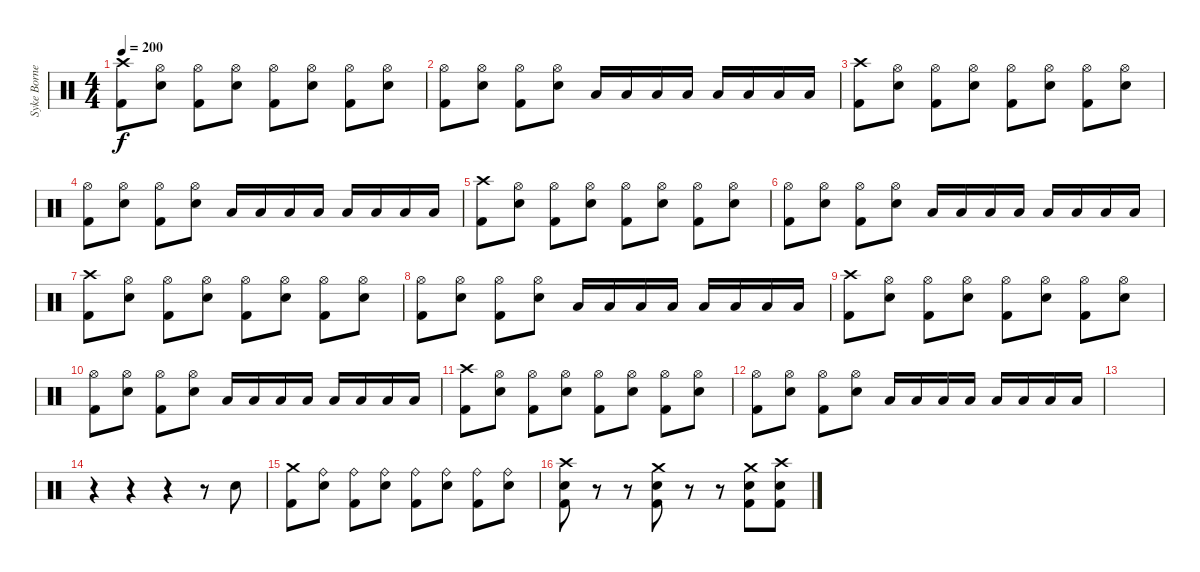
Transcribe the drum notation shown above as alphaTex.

\track ("Syke Bornetto (Drums)" "Syke Borne") {instrument percussion}
\staff {score}
\articulation defaults
\ts (4 4)
\tempo 200
\clef neutral
\ks c
("Crash high (hit)" "Kick (hit) 2").8{dy f} ("Hi-Hat (open)" "Electric Snare (hit)").8 ("Hi-Hat (open)" "Kick (hit) 2").8 ("Hi-Hat (open)" "Electric Snare (hit)").8 ("Hi-Hat (open)" "Kick (hit) 2").8 ("Hi-Hat (open)" "Electric Snare (hit)").8 ("Hi-Hat (open)" "Kick (hit) 2").8 ("Hi-Hat (open)" "Electric Snare (hit)").8 |
("Hi-Hat (open)" "Kick (hit) 2").8 ("Hi-Hat (open)" "Electric Snare (hit)").8 ("Hi-Hat (open)" "Kick (hit) 2").8 ("Hi-Hat (open)" "Electric Snare (hit)").8 "Low Floor Tom (hit)".16 "Low Floor Tom (hit)".16 "Low Floor Tom (hit)".16 "Low Floor Tom (hit)".16 "Low Tom (hit)".16 "Low Tom (hit)".16 "Low Tom (hit)".16 "Low Tom (hit)".16 |
("Crash high (hit)" "Kick (hit) 2").8 ("Hi-Hat (open)" "Electric Snare (hit)").8 ("Hi-Hat (open)" "Kick (hit) 2").8 ("Hi-Hat (open)" "Electric Snare (hit)").8 ("Hi-Hat (open)" "Kick (hit) 2").8 ("Hi-Hat (open)" "Electric Snare (hit)").8 ("Hi-Hat (open)" "Kick (hit) 2").8 ("Hi-Hat (open)" "Electric Snare (hit)").8 |
("Hi-Hat (open)" "Kick (hit) 2").8 ("Hi-Hat (open)" "Electric Snare (hit)").8 ("Hi-Hat (open)" "Kick (hit) 2").8 ("Hi-Hat (open)" "Electric Snare (hit)").8 "Low Floor Tom (hit)".16 "Low Floor Tom (hit)".16 "Low Floor Tom (hit)".16 "Low Floor Tom (hit)".16 "Low Tom (hit)".16 "Low Tom (hit)".16 "Low Tom (hit)".16 "Low Tom (hit)".16 |
("Crash high (hit)" "Kick (hit) 2").8 ("Hi-Hat (open)" "Electric Snare (hit)").8 ("Hi-Hat (open)" "Kick (hit) 2").8 ("Hi-Hat (open)" "Electric Snare (hit)").8 ("Hi-Hat (open)" "Kick (hit) 2").8 ("Hi-Hat (open)" "Electric Snare (hit)").8 ("Hi-Hat (open)" "Kick (hit) 2").8 ("Hi-Hat (open)" "Electric Snare (hit)").8 |
("Hi-Hat (open)" "Kick (hit) 2").8 ("Hi-Hat (open)" "Electric Snare (hit)").8 ("Hi-Hat (open)" "Kick (hit) 2").8 ("Hi-Hat (open)" "Electric Snare (hit)").8 "Low Floor Tom (hit)".16 "Low Floor Tom (hit)".16 "Low Floor Tom (hit)".16 "Low Floor Tom (hit)".16 "Low Tom (hit)".16 "Low Tom (hit)".16 "Low Tom (hit)".16 "Low Tom (hit)".16 |
("Crash high (hit)" "Kick (hit) 2").8 ("Hi-Hat (open)" "Electric Snare (hit)").8 ("Hi-Hat (open)" "Kick (hit) 2").8 ("Hi-Hat (open)" "Electric Snare (hit)").8 ("Hi-Hat (open)" "Kick (hit) 2").8 ("Hi-Hat (open)" "Electric Snare (hit)").8 ("Hi-Hat (open)" "Kick (hit) 2").8 ("Hi-Hat (open)" "Electric Snare (hit)").8 |
("Hi-Hat (open)" "Kick (hit) 2").8 ("Hi-Hat (open)" "Electric Snare (hit)").8 ("Hi-Hat (open)" "Kick (hit) 2").8 ("Hi-Hat (open)" "Electric Snare (hit)").8 "Low Floor Tom (hit)".16 "Low Floor Tom (hit)".16 "Low Floor Tom (hit)".16 "Low Floor Tom (hit)".16 "Low Tom (hit)".16 "Low Tom (hit)".16 "Low Tom (hit)".16 "Low Tom (hit)".16 |
("Crash high (hit)" "Kick (hit) 2").8 ("Hi-Hat (open)" "Electric Snare (hit)").8 ("Hi-Hat (open)" "Kick (hit) 2").8 ("Hi-Hat (open)" "Electric Snare (hit)").8 ("Hi-Hat (open)" "Kick (hit) 2").8 ("Hi-Hat (open)" "Electric Snare (hit)").8 ("Hi-Hat (open)" "Kick (hit) 2").8 ("Hi-Hat (open)" "Electric Snare (hit)").8 |
("Hi-Hat (open)" "Kick (hit) 2").8 ("Hi-Hat (open)" "Electric Snare (hit)").8 ("Hi-Hat (open)" "Kick (hit) 2").8 ("Hi-Hat (open)" "Electric Snare (hit)").8 "Low Floor Tom (hit)".16 "Low Floor Tom (hit)".16 "Low Floor Tom (hit)".16 "Low Floor Tom (hit)".16 "Low Tom (hit)".16 "Low Tom (hit)".16 "Low Tom (hit)".16 "Low Tom (hit)".16 |
("Crash high (hit)" "Kick (hit) 2").8 ("Hi-Hat (open)" "Electric Snare (hit)").8 ("Hi-Hat (open)" "Kick (hit) 2").8 ("Hi-Hat (open)" "Electric Snare (hit)").8 ("Hi-Hat (open)" "Kick (hit) 2").8 ("Hi-Hat (open)" "Electric Snare (hit)").8 ("Hi-Hat (open)" "Kick (hit) 2").8 ("Hi-Hat (open)" "Electric Snare (hit)").8 |
("Hi-Hat (open)" "Kick (hit) 2").8 ("Hi-Hat (open)" "Electric Snare (hit)").8 ("Hi-Hat (open)" "Kick (hit) 2").8 ("Hi-Hat (open)" "Electric Snare (hit)").8 "Low Floor Tom (hit)".16 "Low Floor Tom (hit)".16 "Low Floor Tom (hit)".16 "Low Floor Tom (hit)".16 "Low Tom (hit)".16 "Low Tom (hit)".16 "Low Tom (hit)".16 "Low Tom (hit)".16 |
|
r.4 r.4 r.4 r.8 "Electric Snare (hit)".8 |
("Crash medium (hit)" "Kick (hit) 2").8 ("Ride (bell)" "Electric Snare (hit)").8 ("Ride (bell)" "Kick (hit) 2").8 ("Ride (bell)" "Electric Snare (hit)").8 ("Ride (bell)" "Kick (hit) 2").8 ("Ride (bell)" "Electric Snare (hit)").8 ("Ride (bell)" "Kick (hit) 2").8 ("Ride (bell)" "Electric Snare (hit)").8 |
("Crash high (hit)" "Kick (hit) 2" "Electric Snare (hit)").8 r.8 r.8 ("Crash medium (hit)" "Kick (hit) 2" "Electric Snare (hit)").8 r.8 r.8 ("Crash medium (hit)" "Kick (hit) 2" "Electric Snare (hit)").8 ("Crash high (hit)" "Kick (hit) 2" "Electric Snare (hit)").8
